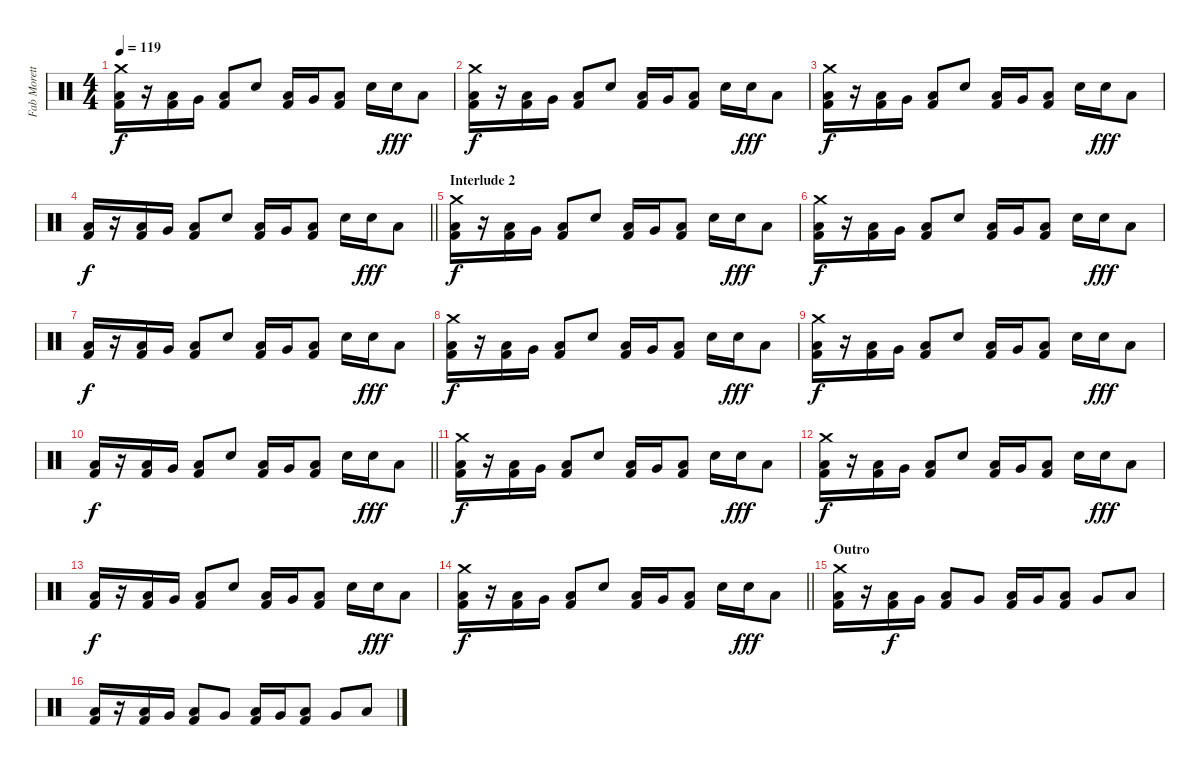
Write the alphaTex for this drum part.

\track ("Fab Moretti" "Fab Morett") {instrument percussion}
\staff {score}
\articulation defaults
\ts (4 4)
\tempo 119
\clef neutral
\ks c
("Crash medium (hit)" "Low Floor Tom (hit)" "Kick (hit) 2").16{dy f} r.16 ("Low Floor Tom (hit)" "Kick (hit) 2").16 "Very Low Tom (hit)".16 ("Low Floor Tom (hit)" "Kick (hit) 2").8 "Electric Snare (hit)".8 ("Low Floor Tom (hit)" "Kick (hit) 2").16 "Very Low Tom (hit)".16 ("Low Floor Tom (hit)" "Kick (hit) 2").8 "Electric Snare (hit)".16 "Electric Snare (hit)".16{dy fff} "Low Floor Tom (hit)".8 |
("Crash medium (hit)" "Low Floor Tom (hit)" "Kick (hit) 2").16{dy f} r.16 ("Low Floor Tom (hit)" "Kick (hit) 2").16 "Very Low Tom (hit)".16 ("Low Floor Tom (hit)" "Kick (hit) 2").8 "Electric Snare (hit)".8 ("Low Floor Tom (hit)" "Kick (hit) 2").16 "Very Low Tom (hit)".16 ("Low Floor Tom (hit)" "Kick (hit) 2").8 "Electric Snare (hit)".16 "Electric Snare (hit)".16{dy fff} "Low Floor Tom (hit)".8 |
("Crash medium (hit)" "Low Floor Tom (hit)" "Kick (hit) 2").16{dy f} r.16 ("Low Floor Tom (hit)" "Kick (hit) 2").16 "Very Low Tom (hit)".16 ("Low Floor Tom (hit)" "Kick (hit) 2").8 "Electric Snare (hit)".8 ("Low Floor Tom (hit)" "Kick (hit) 2").16 "Very Low Tom (hit)".16 ("Low Floor Tom (hit)" "Kick (hit) 2").8 "Electric Snare (hit)".16 "Electric Snare (hit)".16{dy fff} "Low Floor Tom (hit)".8 |
\barLineRight lightlight
("Low Floor Tom (hit)" "Kick (hit) 2").16{dy f} r.16 ("Low Floor Tom (hit)" "Kick (hit) 2").16 "Very Low Tom (hit)".16 ("Low Floor Tom (hit)" "Kick (hit) 2").8 "Electric Snare (hit)".8 ("Low Floor Tom (hit)" "Kick (hit) 2").16 "Very Low Tom (hit)".16 ("Low Floor Tom (hit)" "Kick (hit) 2").8 "Electric Snare (hit)".16 "Electric Snare (hit)".16{dy fff} "Low Floor Tom (hit)".8 |
\section ("" "Interlude 2")
("Crash medium (hit)" "Low Floor Tom (hit)" "Kick (hit) 2").16{dy f} r.16 ("Low Floor Tom (hit)" "Kick (hit) 2").16 "Very Low Tom (hit)".16 ("Low Floor Tom (hit)" "Kick (hit) 2").8 "Electric Snare (hit)".8 ("Low Floor Tom (hit)" "Kick (hit) 2").16 "Very Low Tom (hit)".16 ("Low Floor Tom (hit)" "Kick (hit) 2").8 "Electric Snare (hit)".16 "Electric Snare (hit)".16{dy fff} "Low Floor Tom (hit)".8 |
("Crash medium (hit)" "Low Floor Tom (hit)" "Kick (hit) 2").16{dy f} r.16 ("Low Floor Tom (hit)" "Kick (hit) 2").16 "Very Low Tom (hit)".16 ("Low Floor Tom (hit)" "Kick (hit) 2").8 "Electric Snare (hit)".8 ("Low Floor Tom (hit)" "Kick (hit) 2").16 "Very Low Tom (hit)".16 ("Low Floor Tom (hit)" "Kick (hit) 2").8 "Electric Snare (hit)".16 "Electric Snare (hit)".16{dy fff} "Low Floor Tom (hit)".8 |
("Low Floor Tom (hit)" "Kick (hit) 2").16{dy f} r.16 ("Low Floor Tom (hit)" "Kick (hit) 2").16 "Very Low Tom (hit)".16 ("Low Floor Tom (hit)" "Kick (hit) 2").8 "Electric Snare (hit)".8 ("Low Floor Tom (hit)" "Kick (hit) 2").16 "Very Low Tom (hit)".16 ("Low Floor Tom (hit)" "Kick (hit) 2").8 "Electric Snare (hit)".16 "Electric Snare (hit)".16{dy fff} "Low Floor Tom (hit)".8 |
("Crash medium (hit)" "Low Floor Tom (hit)" "Kick (hit) 2").16{dy f} r.16 ("Low Floor Tom (hit)" "Kick (hit) 2").16 "Very Low Tom (hit)".16 ("Low Floor Tom (hit)" "Kick (hit) 2").8 "Electric Snare (hit)".8 ("Low Floor Tom (hit)" "Kick (hit) 2").16 "Very Low Tom (hit)".16 ("Low Floor Tom (hit)" "Kick (hit) 2").8 "Electric Snare (hit)".16 "Electric Snare (hit)".16{dy fff} "Low Floor Tom (hit)".8 |
("Crash medium (hit)" "Low Floor Tom (hit)" "Kick (hit) 2").16{dy f} r.16 ("Low Floor Tom (hit)" "Kick (hit) 2").16 "Very Low Tom (hit)".16 ("Low Floor Tom (hit)" "Kick (hit) 2").8 "Electric Snare (hit)".8 ("Low Floor Tom (hit)" "Kick (hit) 2").16 "Very Low Tom (hit)".16 ("Low Floor Tom (hit)" "Kick (hit) 2").8 "Electric Snare (hit)".16 "Electric Snare (hit)".16{dy fff} "Low Floor Tom (hit)".8 |
\barLineRight lightlight
("Low Floor Tom (hit)" "Kick (hit) 2").16{dy f} r.16 ("Low Floor Tom (hit)" "Kick (hit) 2").16 "Very Low Tom (hit)".16 ("Low Floor Tom (hit)" "Kick (hit) 2").8 "Electric Snare (hit)".8 ("Low Floor Tom (hit)" "Kick (hit) 2").16 "Very Low Tom (hit)".16 ("Low Floor Tom (hit)" "Kick (hit) 2").8 "Electric Snare (hit)".16 "Electric Snare (hit)".16{dy fff} "Low Floor Tom (hit)".8 |
("Crash medium (hit)" "Low Floor Tom (hit)" "Kick (hit) 2").16{dy f} r.16 ("Low Floor Tom (hit)" "Kick (hit) 2").16 "Very Low Tom (hit)".16 ("Low Floor Tom (hit)" "Kick (hit) 2").8 "Electric Snare (hit)".8 ("Low Floor Tom (hit)" "Kick (hit) 2").16 "Very Low Tom (hit)".16 ("Low Floor Tom (hit)" "Kick (hit) 2").8 "Electric Snare (hit)".16 "Electric Snare (hit)".16{dy fff} "Low Floor Tom (hit)".8 |
("Crash medium (hit)" "Low Floor Tom (hit)" "Kick (hit) 2").16{dy f} r.16 ("Low Floor Tom (hit)" "Kick (hit) 2").16 "Very Low Tom (hit)".16 ("Low Floor Tom (hit)" "Kick (hit) 2").8 "Electric Snare (hit)".8 ("Low Floor Tom (hit)" "Kick (hit) 2").16 "Very Low Tom (hit)".16 ("Low Floor Tom (hit)" "Kick (hit) 2").8 "Electric Snare (hit)".16 "Electric Snare (hit)".16{dy fff} "Low Floor Tom (hit)".8 |
("Low Floor Tom (hit)" "Kick (hit) 2").16{dy f} r.16 ("Low Floor Tom (hit)" "Kick (hit) 2").16 "Very Low Tom (hit)".16 ("Low Floor Tom (hit)" "Kick (hit) 2").8 "Electric Snare (hit)".8 ("Low Floor Tom (hit)" "Kick (hit) 2").16 "Very Low Tom (hit)".16 ("Low Floor Tom (hit)" "Kick (hit) 2").8 "Electric Snare (hit)".16 "Electric Snare (hit)".16{dy fff} "Low Floor Tom (hit)".8 |
\barLineRight lightlight
("Crash medium (hit)" "Low Floor Tom (hit)" "Kick (hit) 2").16{dy f} r.16 ("Low Floor Tom (hit)" "Kick (hit) 2").16 "Very Low Tom (hit)".16 ("Low Floor Tom (hit)" "Kick (hit) 2").8 "Electric Snare (hit)".8 ("Low Floor Tom (hit)" "Kick (hit) 2").16 "Very Low Tom (hit)".16 ("Low Floor Tom (hit)" "Kick (hit) 2").8 "Electric Snare (hit)".16 "Electric Snare (hit)".16{dy fff} "Low Floor Tom (hit)".8 |
\section ("" "Outro")
("Crash medium (hit)" "Low Floor Tom (hit)" "Kick (hit) 2").16 r.16 ("Low Floor Tom (hit)" "Kick (hit) 2").16{dy f} "Very Low Tom (hit)".16 ("Low Floor Tom (hit)" "Kick (hit) 2").8 "Very Low Tom (hit)".8 ("Low Floor Tom (hit)" "Kick (hit) 2").16 "Very Low Tom (hit)".16 ("Low Floor Tom (hit)" "Kick (hit) 2").8 "Very Low Tom (hit)".8 "Low Floor Tom (hit)".8 |
("Low Floor Tom (hit)" "Kick (hit) 2").16 r.16 ("Low Floor Tom (hit)" "Kick (hit) 2").16 "Very Low Tom (hit)".16 ("Low Floor Tom (hit)" "Kick (hit) 2").8 "Very Low Tom (hit)".8 ("Low Floor Tom (hit)" "Kick (hit) 2").16 "Very Low Tom (hit)".16 ("Low Floor Tom (hit)" "Kick (hit) 2").8 "Very Low Tom (hit)".8 "Low Floor Tom (hit)".8
